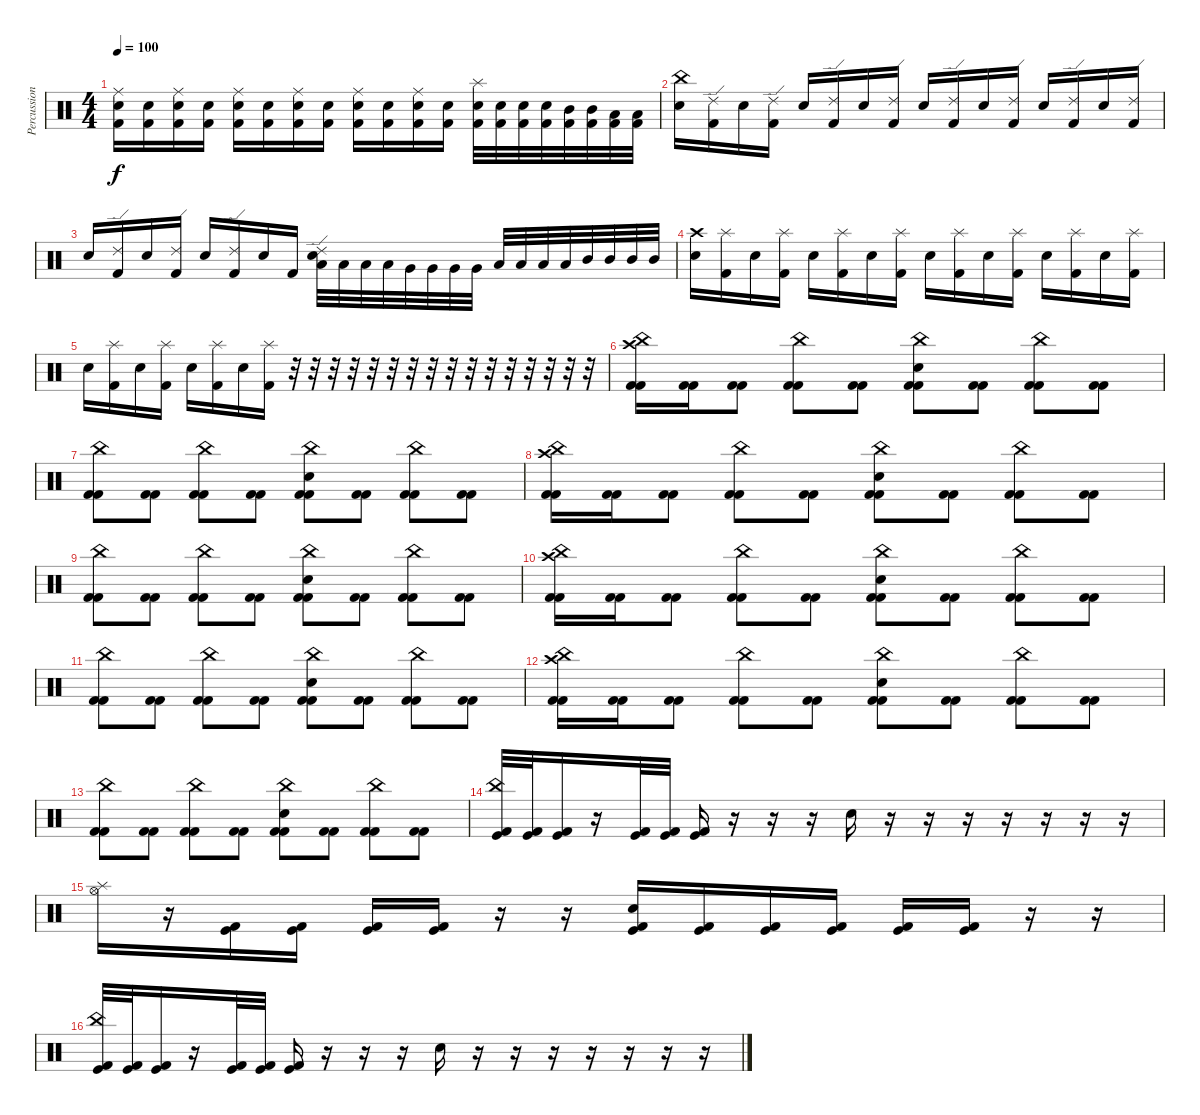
\track ("Percussion" "Percussion") {instrument percussion}
\staff {score}
\articulation defaults
\ts (4 4)
\tempo 100
\clef neutral
\ks c
("Ride (middle)" "Electric Snare (hit)" "Kick (hit) 2").16{dy f} ("Electric Snare (hit)" "Kick (hit) 2").16 ("Ride (middle)" "Electric Snare (hit)" "Kick (hit) 2").16 ("Electric Snare (hit)" "Kick (hit) 2").16 ("Ride (middle)" "Electric Snare (hit)" "Kick (hit) 2").16 ("Electric Snare (hit)" "Kick (hit) 2").16 ("Ride (middle)" "Electric Snare (hit)" "Kick (hit) 2").16 ("Electric Snare (hit)" "Kick (hit) 2").16 ("Ride (middle)" "Electric Snare (hit)" "Kick (hit) 2").16 ("Electric Snare (hit)" "Kick (hit) 2").16 ("Ride (middle)" "Electric Snare (hit)" "Kick (hit) 2").16 ("Electric Snare (hit)" "Kick (hit) 2").16 ("Splash (hit)" "Electric Snare (hit)" "Kick (hit) 2").32 ("Electric Snare (hit)" "Kick (hit) 2").32 ("Electric Snare (hit)" "Kick (hit) 2").32 ("Electric Snare (hit)" "Kick (hit) 2").32 ("Mid Tom (hit)" "Kick (hit) 2").32 ("Mid Tom (hit)" "Kick (hit) 2").32 ("Low Tom (hit)" "Kick (hit) 2").32 ("Low Tom (hit)" "Kick (hit) 2").32 |
("China (hit)" "Electric Snare (hit)").16 ("Ride (edge) 2" "Kick (hit) 2").16 "Electric Snare (hit)".16 ("Ride (edge) 2" "Kick (hit) 2").16 "Electric Snare (hit)".16 ("Ride (edge) 2" "Kick (hit) 2").16 "Electric Snare (hit)".16 ("Ride (edge) 2" "Kick (hit) 2").16 "Electric Snare (hit)".16 ("Ride (edge) 2" "Kick (hit) 2").16 "Electric Snare (hit)".16 ("Ride (edge) 2" "Kick (hit) 2").16 "Electric Snare (hit)".16 ("Ride (edge) 2" "Kick (hit) 2").16 "Electric Snare (hit)".16 ("Ride (edge) 2" "Kick (hit) 2").16 |
"Electric Snare (hit)".16 ("Ride (edge) 2" "Kick (hit) 2").16 "Electric Snare (hit)".16 ("Ride (edge) 2" "Kick (hit) 2").16 "Electric Snare (hit)".16 ("Ride (edge) 2" "Kick (hit) 2").16 "Electric Snare (hit)".16 "Kick (hit) 2".16 ("Ride (edge) 2" "Low Tom (hit)" "Electric Snare (hit)").32 "Low Tom (hit)".32 "Low Tom (hit)".32 "Low Tom (hit)".32 "Very Low Tom (hit)".32 "Very Low Tom (hit)".32 "Very Low Tom (hit)".32 "Very Low Tom (hit)".32 "Low Tom (hit)".32 "Low Tom (hit)".32 "Low Tom (hit)".32 "Low Tom (hit)".32 "Mid Tom (hit)".32 "Mid Tom (hit)".32 "Mid Tom (hit)".32 "Mid Tom (hit)".32 |
("Crash high (hit)" "Electric Snare (hit)").16 ("Splash (hit)" "Kick (hit) 2").16 "Electric Snare (hit)".16 ("Splash (hit)" "Kick (hit) 2").16 "Electric Snare (hit)".16 ("Splash (hit)" "Kick (hit) 2").16 "Electric Snare (hit)".16 ("Splash (hit)" "Kick (hit) 2").16 "Electric Snare (hit)".16 ("Splash (hit)" "Kick (hit) 2").16 "Electric Snare (hit)".16 ("Splash (hit)" "Kick (hit) 2").16 "Electric Snare (hit)".16 ("Splash (hit)" "Kick (hit) 2").16 "Electric Snare (hit)".16 ("Splash (hit)" "Kick (hit) 2").16 |
"Electric Snare (hit)".16 ("Splash (hit)" "Kick (hit) 2").16 "Electric Snare (hit)".16 ("Splash (hit)" "Kick (hit) 2").16 "Electric Snare (hit)".16 ("Splash (hit)" "Kick (hit) 2").16 "Electric Snare (hit)".16 ("Splash (hit)" "Kick (hit) 2").16 r.32 r.32 r.32 r.32 r.32 r.32 r.32 r.32 r.32 r.32 r.32 r.32 r.32 r.32 r.32 r.32 |
("Crash high (hit)" "China (hit)" "Kick (hit) 2" "Kick (hit) 2").16 ("Kick (hit) 2" "Kick (hit) 2").16 ("Kick (hit) 2" "Kick (hit) 2").8 ("China (hit)" "Kick (hit) 2" "Kick (hit) 2").8 ("Kick (hit) 2" "Kick (hit) 2").8 ("China (hit)" "Electric Snare (hit)" "Kick (hit) 2" "Kick (hit) 2").8 ("Kick (hit) 2" "Kick (hit) 2").8 ("China (hit)" "Kick (hit) 2" "Kick (hit) 2").8 ("Kick (hit) 2" "Kick (hit) 2").8 |
("China (hit)" "Kick (hit) 2" "Kick (hit) 2").8 ("Kick (hit) 2" "Kick (hit) 2").8 ("China (hit)" "Kick (hit) 2" "Kick (hit) 2").8 ("Kick (hit) 2" "Kick (hit) 2").8 ("China (hit)" "Electric Snare (hit)" "Kick (hit) 2" "Kick (hit) 2").8 ("Kick (hit) 2" "Kick (hit) 2").8 ("China (hit)" "Kick (hit) 2" "Kick (hit) 2").8 ("Kick (hit) 2" "Kick (hit) 2").8 |
("Crash high (hit)" "China (hit)" "Kick (hit) 2" "Kick (hit) 2").16 ("Kick (hit) 2" "Kick (hit) 2").16 ("Kick (hit) 2" "Kick (hit) 2").8 ("China (hit)" "Kick (hit) 2" "Kick (hit) 2").8 ("Kick (hit) 2" "Kick (hit) 2").8 ("China (hit)" "Electric Snare (hit)" "Kick (hit) 2" "Kick (hit) 2").8 ("Kick (hit) 2" "Kick (hit) 2").8 ("China (hit)" "Kick (hit) 2" "Kick (hit) 2").8 ("Kick (hit) 2" "Kick (hit) 2").8 |
("China (hit)" "Kick (hit) 2" "Kick (hit) 2").8 ("Kick (hit) 2" "Kick (hit) 2").8 ("China (hit)" "Kick (hit) 2" "Kick (hit) 2").8 ("Kick (hit) 2" "Kick (hit) 2").8 ("China (hit)" "Electric Snare (hit)" "Kick (hit) 2" "Kick (hit) 2").8 ("Kick (hit) 2" "Kick (hit) 2").8 ("China (hit)" "Kick (hit) 2" "Kick (hit) 2").8 ("Kick (hit) 2" "Kick (hit) 2").8 |
("Crash high (hit)" "China (hit)" "Kick (hit) 2" "Kick (hit) 2").16 ("Kick (hit) 2" "Kick (hit) 2").16 ("Kick (hit) 2" "Kick (hit) 2").8 ("China (hit)" "Kick (hit) 2" "Kick (hit) 2").8 ("Kick (hit) 2" "Kick (hit) 2").8 ("China (hit)" "Electric Snare (hit)" "Kick (hit) 2" "Kick (hit) 2").8 ("Kick (hit) 2" "Kick (hit) 2").8 ("China (hit)" "Kick (hit) 2" "Kick (hit) 2").8 ("Kick (hit) 2" "Kick (hit) 2").8 |
("China (hit)" "Kick (hit) 2" "Kick (hit) 2").8 ("Kick (hit) 2" "Kick (hit) 2").8 ("China (hit)" "Kick (hit) 2" "Kick (hit) 2").8 ("Kick (hit) 2" "Kick (hit) 2").8 ("China (hit)" "Electric Snare (hit)" "Kick (hit) 2" "Kick (hit) 2").8 ("Kick (hit) 2" "Kick (hit) 2").8 ("China (hit)" "Kick (hit) 2" "Kick (hit) 2").8 ("Kick (hit) 2" "Kick (hit) 2").8 |
("Crash high (hit)" "China (hit)" "Kick (hit) 2" "Kick (hit) 2").16 ("Kick (hit) 2" "Kick (hit) 2").16 ("Kick (hit) 2" "Kick (hit) 2").8 ("China (hit)" "Kick (hit) 2" "Kick (hit) 2").8 ("Kick (hit) 2" "Kick (hit) 2").8 ("China (hit)" "Electric Snare (hit)" "Kick (hit) 2" "Kick (hit) 2").8 ("Kick (hit) 2" "Kick (hit) 2").8 ("China (hit)" "Kick (hit) 2" "Kick (hit) 2").8 ("Kick (hit) 2" "Kick (hit) 2").8 |
("China (hit)" "Kick (hit) 2" "Kick (hit) 2").8 ("Kick (hit) 2" "Kick (hit) 2").8 ("China (hit)" "Kick (hit) 2" "Kick (hit) 2").8 ("Kick (hit) 2" "Kick (hit) 2").8 ("China (hit)" "Electric Snare (hit)" "Kick (hit) 2" "Kick (hit) 2").8 ("Kick (hit) 2" "Kick (hit) 2").8 ("China (hit)" "Kick (hit) 2" "Kick (hit) 2").8 ("Kick (hit) 2" "Kick (hit) 2").8 |
("China (hit)" "Kick (hit)" "Kick (hit) 2").32 ("Kick (hit)" "Kick (hit) 2").32 ("Kick (hit)" "Kick (hit) 2").16 r.16 ("Kick (hit)" "Kick (hit) 2").32 ("Kick (hit)" "Kick (hit) 2").32 ("Kick (hit)" "Kick (hit) 2").16 r.16 r.16 r.16 "Electric Snare (hit)".16 r.16 r.16 r.16 r.16 r.16 r.16 r.16 |
("Splash (hit)" "Hi-Hat (open)").16 r.16 ("Kick (hit)" "Kick (hit) 2").16 ("Kick (hit)" "Kick (hit) 2").16 ("Kick (hit)" "Kick (hit) 2").16 ("Kick (hit)" "Kick (hit) 2").16 r.16 r.16 ("Electric Snare (hit)" "Kick (hit)" "Kick (hit) 2").16 ("Kick (hit)" "Kick (hit) 2").16 ("Kick (hit)" "Kick (hit) 2").16 ("Kick (hit)" "Kick (hit) 2").16 ("Kick (hit)" "Kick (hit) 2").16 ("Kick (hit)" "Kick (hit) 2").16 r.16 r.16 |
("China (hit)" "Kick (hit)" "Kick (hit) 2").32 ("Kick (hit)" "Kick (hit) 2").32 ("Kick (hit)" "Kick (hit) 2").16 r.16 ("Kick (hit)" "Kick (hit) 2").32 ("Kick (hit)" "Kick (hit) 2").32 ("Kick (hit)" "Kick (hit) 2").16 r.16 r.16 r.16 "Electric Snare (hit)".16 r.16 r.16 r.16 r.16 r.16 r.16 r.16
